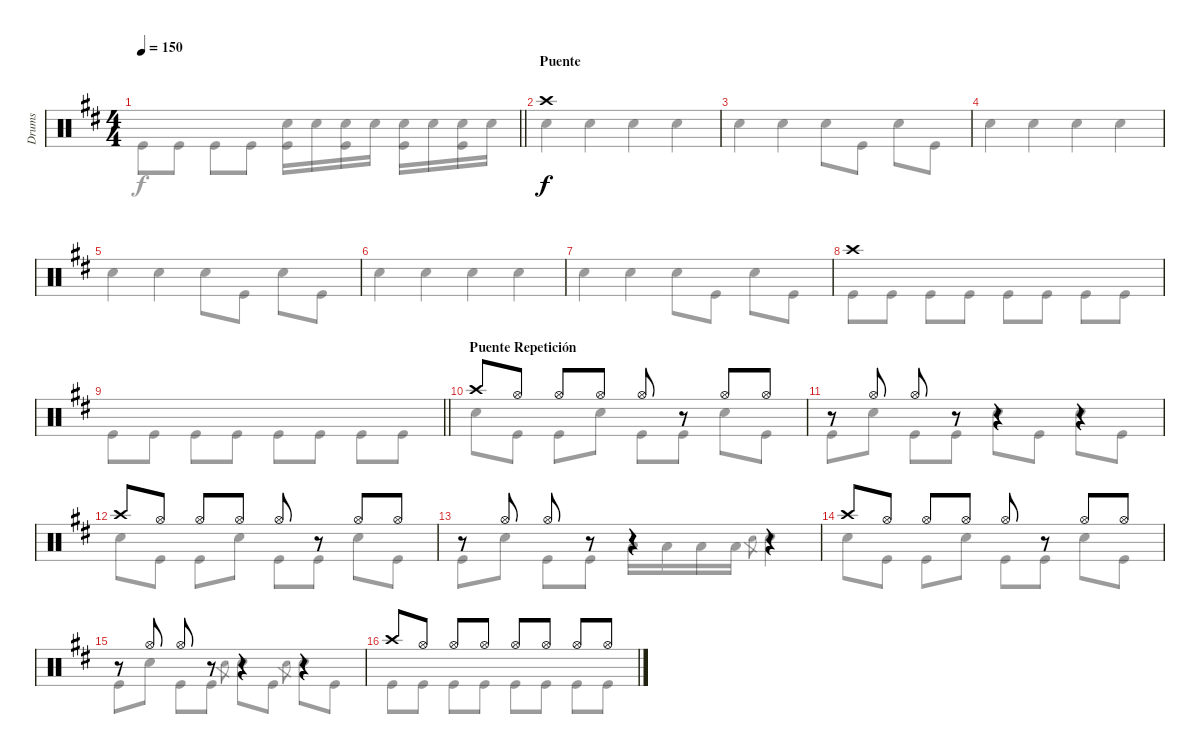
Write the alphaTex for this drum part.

\track ("Drums" "Drums") {instrument percussion}
\staff {score}
\articulation defaults
\voice
\ts (4 4)
\tempo 150
\clef neutral
\barLineRight lightlight
\ks bminor
|
\section ("" "Puente")
"Crash high (hit)".1 |
|
|
|
|
|
"Crash high (hit)".1 |
\barLineRight lightlight
|
\section ("" "Puente Repetición")
"Crash high (hit)".8 "Hi-Hat (open)".8 "Hi-Hat (open)".8 "Hi-Hat (open)".8 "Hi-Hat (open)".8 r.8 "Hi-Hat (open)".8 "Hi-Hat (open)".8 |
r.8 "Hi-Hat (open)".8 "Hi-Hat (open)".8 r.8 r.4 r.4 |
"Crash high (hit)".8 "Hi-Hat (open)".8 "Hi-Hat (open)".8 "Hi-Hat (open)".8 "Hi-Hat (open)".8 r.8 "Hi-Hat (open)".8 "Hi-Hat (open)".8 |
r.8 "Hi-Hat (open)".8 "Hi-Hat (open)".8 r.8 r.4 r.4 |
"Crash high (hit)".8 "Hi-Hat (open)".8 "Hi-Hat (open)".8 "Hi-Hat (open)".8 "Hi-Hat (open)".8 r.8 "Hi-Hat (open)".8 "Hi-Hat (open)".8 |
r.8 "Hi-Hat (open)".8 "Hi-Hat (open)".8 r.8 r.4 r.4 |
"Crash high (hit)".8 "Hi-Hat (open)".8 "Hi-Hat (open)".8 "Hi-Hat (open)".8 "Hi-Hat (open)".8 "Hi-Hat (open)".8 "Hi-Hat (open)".8 "Hi-Hat (open)".8
\voice
\clef neutral
\ottava regular
\simile none
\barLineRight lightlight
\ks bminor "Kick (hit)".8{dy f} "Kick (hit)".8 "Kick (hit)".8 "Kick (hit)".8
("Snare (hit) 2" "Kick (hit)").16 "Snare (hit) 2".16 ("Snare (hit) 2" "Kick (hit)").16 "Snare (hit) 2".16 ("Snare (hit) 2" "Kick (hit)").16 "Snare (hit) 2".16 ("Snare (hit) 2" "Kick (hit)").16 "Snare (hit) 2".16 |
"Snare (hit) 2".4 "Snare (hit) 2".4 "Snare (hit) 2".4 "Snare (hit) 2".4 |
"Snare (hit) 2".4 "Snare (hit) 2".4 "Snare (hit) 2".8 "Kick (hit)".8 "Snare (hit) 2".8 "Kick (hit)".8 |
"Snare (hit) 2".4 "Snare (hit) 2".4 "Snare (hit) 2".4 "Snare (hit) 2".4 |
"Snare (hit) 2".4 "Snare (hit) 2".4 "Snare (hit) 2".8 "Kick (hit)".8 "Snare (hit) 2".8 "Kick (hit)".8 |
"Snare (hit) 2".4 "Snare (hit) 2".4 "Snare (hit) 2".4 "Snare (hit) 2".4 |
"Snare (hit) 2".4 "Snare (hit) 2".4 "Snare (hit) 2".8 "Kick (hit)".8 "Snare (hit) 2".8 "Kick (hit)".8 |
"Kick (hit)".8 "Kick (hit)".8 "Kick (hit)".8 "Kick (hit)".8 "Kick (hit)".8 "Kick (hit)".8 "Kick (hit)".8 "Kick (hit)".8 |
\barLineRight lightlight "Kick (hit)".8 "Kick (hit)".8 "Kick (hit)".8 "Kick (hit)".8 "Kick (hit)".8 "Kick (hit)".8 "Kick (hit)".8 "Kick (hit)".8
|
"Snare (hit) 2".8 "Kick (hit)".8 "Kick (hit)".8 "Snare (hit) 2".8 "Kick (hit)".8 "Kick (hit)".8 "Snare (hit) 2".8 "Kick (hit)".8 |
"Kick (hit)".8 "Snare (hit) 2".8 "Kick (hit)".8 "Kick (hit)".8 "Snare (hit) 2".8 "Kick (hit)".8 "Snare (hit) 2".8 "Kick (hit)".8 |
"Snare (hit) 2".8 "Kick (hit)".8 "Kick (hit)".8 "Snare (hit) 2".8 "Kick (hit)".8 "Kick (hit)".8 "Snare (hit) 2".8 "Kick (hit)".8 |
"Kick (hit)".8 "Snare (hit) 2".8 "Kick (hit)".8 "Kick (hit)".8 "Low Tom (hit)".16 "Low Tom (hit)".16 "Low Tom (hit)".16 "Low Tom (hit)".16 "Snare (hit) 2".8{gr} "Snare (hit) 2".4 |
"Snare (hit) 2".8 "Kick (hit)".8 "Kick (hit)".8 "Snare (hit) 2".8 "Kick (hit)".8 "Kick (hit)".8 "Snare (hit) 2".8 "Kick (hit)".8 |
"Kick (hit)".8 "Snare (hit) 2".8 "Kick (hit)".8 "Kick (hit)".8 "Snare (hit) 2".8{gr} "Snare (hit) 2".8 "Kick (hit)".8 "Snare (hit) 2".8{gr} "Snare (hit) 2".8 "Kick (hit)".8 |
"Kick (hit)".8 "Kick (hit)".8 "Kick (hit)".8 "Kick (hit)".8 "Kick (hit)".8 "Kick (hit)".8 "Kick (hit)".8 "Kick (hit)".8
